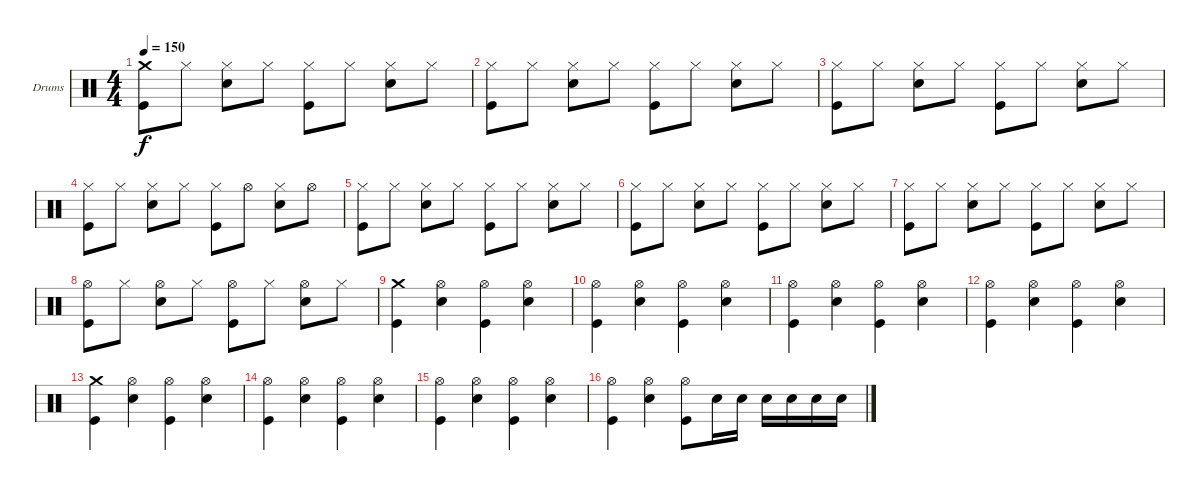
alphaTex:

\bracketExtendMode groupsimilarinstruments
\firstSystemTrackNameOrientation horizontal
\otherSystemsTrackNameOrientation horizontal
\track ("Drumkit" "Drums") {instrument percussion}
\staff {score}
\articulation defaults
\ts (4 4)
\tempo 150
\clef neutral
\ks c
("Crash medium (hit)" "Kick (hit)").8{dy f} "Hi-Hat (closed)".8 ("Hi-Hat (closed)" "Snare (hit) 2").8 "Hi-Hat (closed)".8 ("Hi-Hat (closed)" "Kick (hit)").8 "Hi-Hat (closed)".8 ("Hi-Hat (closed)" "Snare (hit) 2").8 "Hi-Hat (closed)".8 |
("Hi-Hat (closed)" "Kick (hit)").8 "Hi-Hat (closed)".8 ("Hi-Hat (closed)" "Snare (hit) 2").8 "Hi-Hat (closed)".8 ("Hi-Hat (closed)" "Kick (hit)").8 "Hi-Hat (closed)".8 ("Hi-Hat (closed)" "Snare (hit) 2").8 "Hi-Hat (closed)".8 |
("Hi-Hat (closed)" "Kick (hit)").8 "Hi-Hat (closed)".8 ("Hi-Hat (closed)" "Snare (hit) 2").8 "Hi-Hat (closed)".8 ("Hi-Hat (closed)" "Kick (hit)").8 "Hi-Hat (closed)".8 ("Hi-Hat (closed)" "Snare (hit) 2").8 "Hi-Hat (closed)".8 |
("Hi-Hat (closed)" "Kick (hit)").8 "Hi-Hat (closed)".8 ("Hi-Hat (closed)" "Snare (hit) 2").8 "Hi-Hat (closed)".8 ("Hi-Hat (closed)" "Kick (hit)").8 "Hi-Hat (open)".8 ("Hi-Hat (closed)" "Snare (hit) 2").8 "Hi-Hat (open)".8 |
("Hi-Hat (closed)" "Kick (hit)").8 "Hi-Hat (closed)".8 ("Hi-Hat (closed)" "Snare (hit) 2").8 "Hi-Hat (closed)".8 ("Hi-Hat (closed)" "Kick (hit)").8 "Hi-Hat (closed)".8 ("Hi-Hat (closed)" "Snare (hit) 2").8 "Hi-Hat (closed)".8 |
("Hi-Hat (closed)" "Kick (hit)").8 "Hi-Hat (closed)".8 ("Hi-Hat (closed)" "Snare (hit) 2").8 "Hi-Hat (closed)".8 ("Hi-Hat (closed)" "Kick (hit)").8 "Hi-Hat (closed)".8 ("Hi-Hat (closed)" "Snare (hit) 2").8 "Hi-Hat (closed)".8 |
("Hi-Hat (closed)" "Kick (hit)").8 "Hi-Hat (closed)".8 ("Hi-Hat (closed)" "Snare (hit) 2").8 "Hi-Hat (closed)".8 ("Hi-Hat (closed)" "Kick (hit)").8 "Hi-Hat (closed)".8 ("Hi-Hat (closed)" "Snare (hit) 2").8 "Hi-Hat (closed)".8 |
("Hi-Hat (open)" "Kick (hit)").8 "Hi-Hat (closed)".8 ("Hi-Hat (open)" "Snare (hit) 2").8 "Hi-Hat (closed)".8 ("Hi-Hat (open)" "Kick (hit)").8 "Hi-Hat (closed)".8 ("Hi-Hat (open)" "Snare (hit) 2").8 "Hi-Hat (closed)".8 |
("Crash medium (hit)" "Kick (hit)").4 ("Hi-Hat (open)" "Snare (hit) 2").4 ("Hi-Hat (open)" "Kick (hit)").4 ("Hi-Hat (open)" "Snare (hit) 2").4 |
("Hi-Hat (open)" "Kick (hit)").4 ("Hi-Hat (open)" "Snare (hit) 2").4 ("Hi-Hat (open)" "Kick (hit)").4 ("Hi-Hat (open)" "Snare (hit) 2").4 |
("Hi-Hat (open)" "Kick (hit)").4 ("Hi-Hat (open)" "Snare (hit) 2").4 ("Hi-Hat (open)" "Kick (hit)").4 ("Hi-Hat (open)" "Snare (hit) 2").4 |
("Hi-Hat (open)" "Kick (hit)").4 ("Hi-Hat (open)" "Snare (hit) 2").4 ("Hi-Hat (open)" "Kick (hit)").4 ("Hi-Hat (open)" "Snare (hit) 2").4 |
("Crash medium (hit)" "Kick (hit)").4 ("Hi-Hat (open)" "Snare (hit) 2").4 ("Hi-Hat (open)" "Kick (hit)").4 ("Hi-Hat (open)" "Snare (hit) 2").4 |
("Hi-Hat (open)" "Kick (hit)").4 ("Hi-Hat (open)" "Snare (hit) 2").4 ("Hi-Hat (open)" "Kick (hit)").4 ("Hi-Hat (open)" "Snare (hit) 2").4 |
("Hi-Hat (open)" "Kick (hit)").4 ("Hi-Hat (open)" "Snare (hit) 2").4 ("Hi-Hat (open)" "Kick (hit)").4 ("Hi-Hat (open)" "Snare (hit) 2").4 |
("Hi-Hat (open)" "Kick (hit)").4 ("Hi-Hat (open)" "Snare (hit) 2").4 ("Hi-Hat (open)" "Kick (hit)").8 "Snare (hit) 2".16 "Snare (hit) 2".16 "Snare (hit) 2".16 "Snare (hit) 2".16 "Snare (hit) 2".16 "Snare (hit) 2".16
